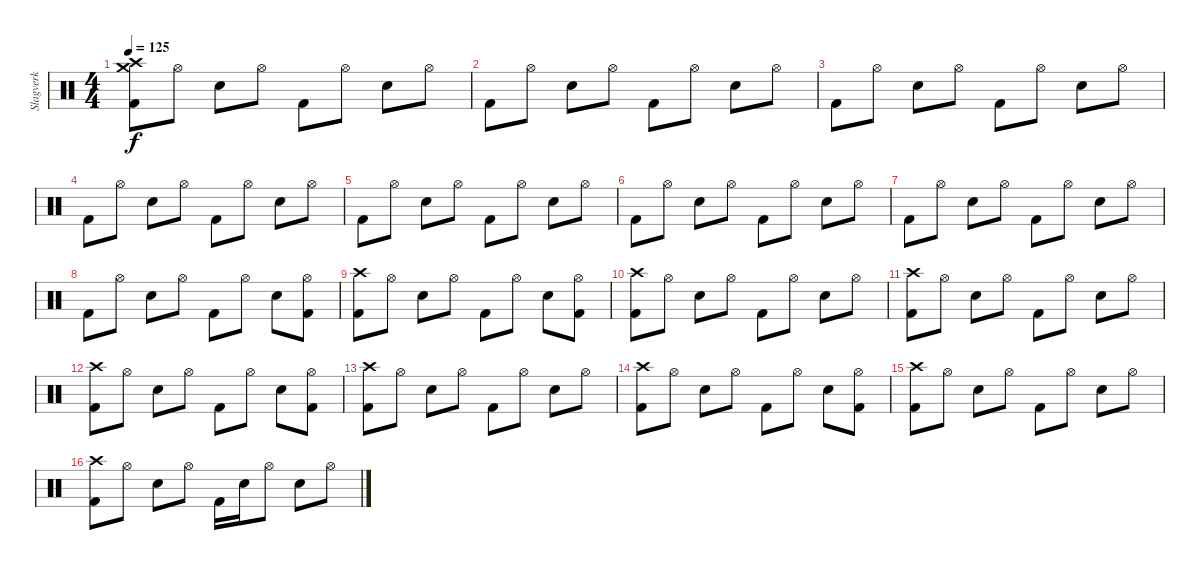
\track ("Slagverk" "Slagverk") {instrument percussion}
\staff {score}
\articulation defaults
\ts (4 4)
\tempo 125
\clef neutral
\ks c
("Crash high (hit)" "Crash medium (hit)" "Kick (hit) 2").8{dy f volume 15} "Hi-Hat (open)".8 "Electric Snare (hit)".8 "Hi-Hat (open)".8 "Kick (hit) 2".8 "Hi-Hat (open)".8 "Electric Snare (hit)".8 "Hi-Hat (open)".8 |
"Kick (hit) 2".8 "Hi-Hat (open)".8 "Electric Snare (hit)".8 "Hi-Hat (open)".8 "Kick (hit) 2".8 "Hi-Hat (open)".8 "Electric Snare (hit)".8 "Hi-Hat (open)".8 |
"Kick (hit) 2".8 "Hi-Hat (open)".8 "Electric Snare (hit)".8 "Hi-Hat (open)".8 "Kick (hit) 2".8 "Hi-Hat (open)".8 "Electric Snare (hit)".8 "Hi-Hat (open)".8 |
"Kick (hit) 2".8 "Hi-Hat (open)".8 "Electric Snare (hit)".8 "Hi-Hat (open)".8 "Kick (hit) 2".8 "Hi-Hat (open)".8 "Electric Snare (hit)".8 "Hi-Hat (open)".8 |
"Kick (hit) 2".8 "Hi-Hat (open)".8 "Electric Snare (hit)".8 "Hi-Hat (open)".8 "Kick (hit) 2".8 "Hi-Hat (open)".8 "Electric Snare (hit)".8 "Hi-Hat (open)".8 |
"Kick (hit) 2".8 "Hi-Hat (open)".8 "Electric Snare (hit)".8 "Hi-Hat (open)".8 "Kick (hit) 2".8 "Hi-Hat (open)".8 "Electric Snare (hit)".8 "Hi-Hat (open)".8 |
"Kick (hit) 2".8 "Hi-Hat (open)".8 "Electric Snare (hit)".8 "Hi-Hat (open)".8 "Kick (hit) 2".8 "Hi-Hat (open)".8 "Electric Snare (hit)".8 "Hi-Hat (open)".8 |
"Kick (hit) 2".8 "Hi-Hat (open)".8 "Electric Snare (hit)".8 "Hi-Hat (open)".8 "Kick (hit) 2".8 "Hi-Hat (open)".8 "Electric Snare (hit)".8 ("Hi-Hat (open)" "Kick (hit) 2").8 |
("Kick (hit) 2" "Crash high (hit)").8 "Hi-Hat (open)".8 "Electric Snare (hit)".8 "Hi-Hat (open)".8 "Kick (hit) 2".8 "Hi-Hat (open)".8 "Electric Snare (hit)".8 ("Hi-Hat (open)" "Kick (hit) 2").8 |
("Kick (hit) 2" "Crash high (hit)").8 "Hi-Hat (open)".8 "Electric Snare (hit)".8 "Hi-Hat (open)".8 "Kick (hit) 2".8 "Hi-Hat (open)".8 "Electric Snare (hit)".8 "Hi-Hat (open)".8 |
("Kick (hit) 2" "Crash high (hit)").8 "Hi-Hat (open)".8 "Electric Snare (hit)".8 "Hi-Hat (open)".8 "Kick (hit) 2".8 "Hi-Hat (open)".8 "Electric Snare (hit)".8 "Hi-Hat (open)".8 |
("Kick (hit) 2" "Crash high (hit)").8 "Hi-Hat (open)".8 "Electric Snare (hit)".8 "Hi-Hat (open)".8 "Kick (hit) 2".8 "Hi-Hat (open)".8 "Electric Snare (hit)".8 ("Hi-Hat (open)" "Kick (hit) 2").8 |
("Kick (hit) 2" "Crash high (hit)").8 "Hi-Hat (open)".8 "Electric Snare (hit)".8 "Hi-Hat (open)".8 "Kick (hit) 2".8 "Hi-Hat (open)".8 "Electric Snare (hit)".8 "Hi-Hat (open)".8 |
("Crash high (hit)" "Kick (hit) 2").8 "Hi-Hat (open)".8 "Electric Snare (hit)".8 "Hi-Hat (open)".8 "Kick (hit) 2".8 "Hi-Hat (open)".8 "Electric Snare (hit)".8 ("Hi-Hat (open)" "Kick (hit) 2").8 |
("Kick (hit) 2" "Crash high (hit)").8 "Hi-Hat (open)".8 "Electric Snare (hit)".8 "Hi-Hat (open)".8 "Kick (hit) 2".8 "Hi-Hat (open)".8 "Electric Snare (hit)".8 "Hi-Hat (open)".8 |
("Crash high (hit)" "Kick (hit) 2").8 "Hi-Hat (open)".8 "Electric Snare (hit)".8 "Hi-Hat (open)".8 "Kick (hit) 2".16 "Electric Snare (hit)".16 "Hi-Hat (open)".8 "Electric Snare (hit)".8 "Hi-Hat (open)".8
